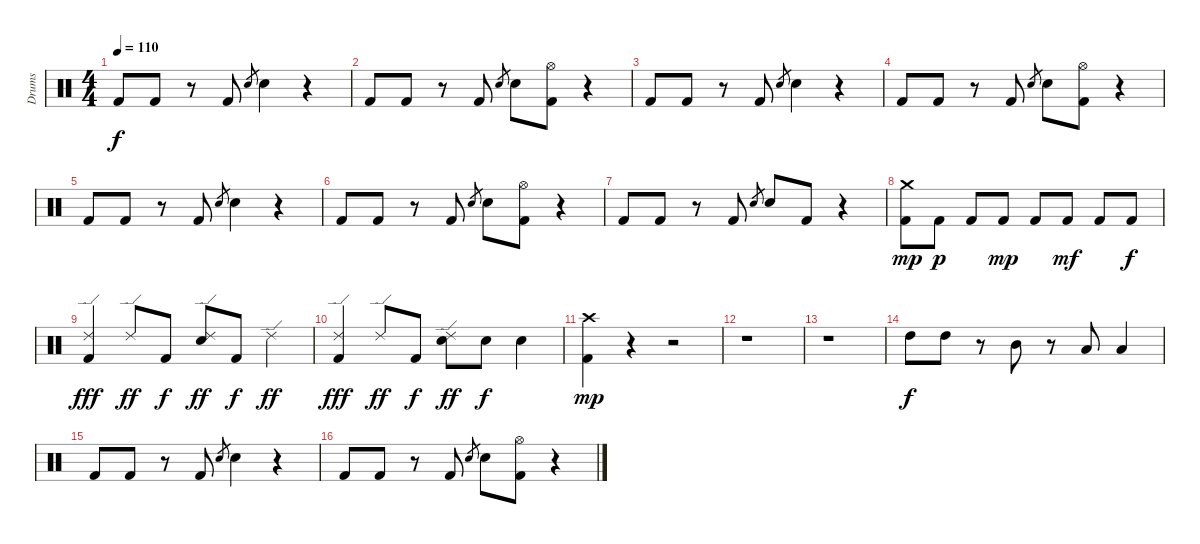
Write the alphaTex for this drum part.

\track ("Drums" "Drums") {instrument percussion}
\staff {score}
\articulation defaults
\ts (4 4)
\tempo 110
\clef neutral
\ks c "Kick (hit) 2".8{dy f} "Kick (hit) 2".8
r.8 "Kick (hit) 2".8 "Snare (hit) 2".8{gr} "Snare (hit) 2".4 r.4 |
"Kick (hit) 2".8 "Kick (hit) 2".8 r.8 "Kick (hit) 2".8 "Snare (hit) 2".8{gr} "Snare (hit) 2".8 ("Hi-Hat (open)" "Kick (hit) 2").8 r.4 |
"Kick (hit) 2".8 "Kick (hit) 2".8 r.8 "Kick (hit) 2".8 "Snare (hit) 2".8{gr} "Snare (hit) 2".4 r.4 |
"Kick (hit) 2".8 "Kick (hit) 2".8 r.8 "Kick (hit) 2".8 "Snare (hit) 2".8{gr} "Snare (hit) 2".8 ("Hi-Hat (open)" "Kick (hit) 2").8 r.4 |
"Kick (hit) 2".8 "Kick (hit) 2".8 r.8 "Kick (hit) 2".8 "Snare (hit) 2".8{gr} "Snare (hit) 2".4 r.4 |
"Kick (hit) 2".8 "Kick (hit) 2".8 r.8 "Kick (hit) 2".8 "Snare (hit) 2".8{gr} "Snare (hit) 2".8 ("Hi-Hat (open)" "Kick (hit) 2").8 r.4 |
"Kick (hit) 2".8 "Kick (hit) 2".8 r.8 "Kick (hit) 2".8 "Snare (hit) 2".8{gr} "Snare (hit) 2".8 "Kick (hit) 2".8 r.4 |
("Crash medium (hit)" "Kick (hit) 2").8{dy mp} "Kick (hit) 2".8{dy p} "Kick (hit) 2".8 "Kick (hit) 2".8{dy mp} "Kick (hit) 2".8 "Kick (hit) 2".8{dy mf} "Kick (hit) 2".8 "Kick (hit) 2".8{dy f} |
("Ride (edge) 2" "Kick (hit) 2").4{dy fff} "Ride (edge) 2".8{dy ff} "Kick (hit) 2".8{dy f} ("Ride (edge) 2" "Snare (hit) 2").8{dy ff} "Kick (hit) 2".8{dy f} "Ride (edge) 2".4{dy ff} |
("Ride (edge) 2" "Kick (hit) 2").4{dy fff} "Ride (edge) 2".8{dy ff} "Kick (hit) 2".8{dy f} ("Ride (edge) 2" "Snare (hit) 2").8{dy ff} "Snare (hit) 2".8{dy f} "Snare (hit) 2".4 |
("Crash high (hit)" "Kick (hit) 2").4{dy mp} r.4 r.2 |
r.1 |
r.1 |
"High Tom (hit)".8{dy f} "High Tom (hit)".8 r.8 "Mid Tom (hit)".8 r.8 "Low Tom (hit)".8 "Low Tom (hit)".4 |
"Kick (hit) 2".8 "Kick (hit) 2".8 r.8 "Kick (hit) 2".8 "Snare (hit) 2".8{gr} "Snare (hit) 2".4 r.4 |
"Kick (hit) 2".8 "Kick (hit) 2".8 r.8 "Kick (hit) 2".8 "Snare (hit) 2".8{gr} "Snare (hit) 2".8 ("Hi-Hat (open)" "Kick (hit) 2").8 r.4
